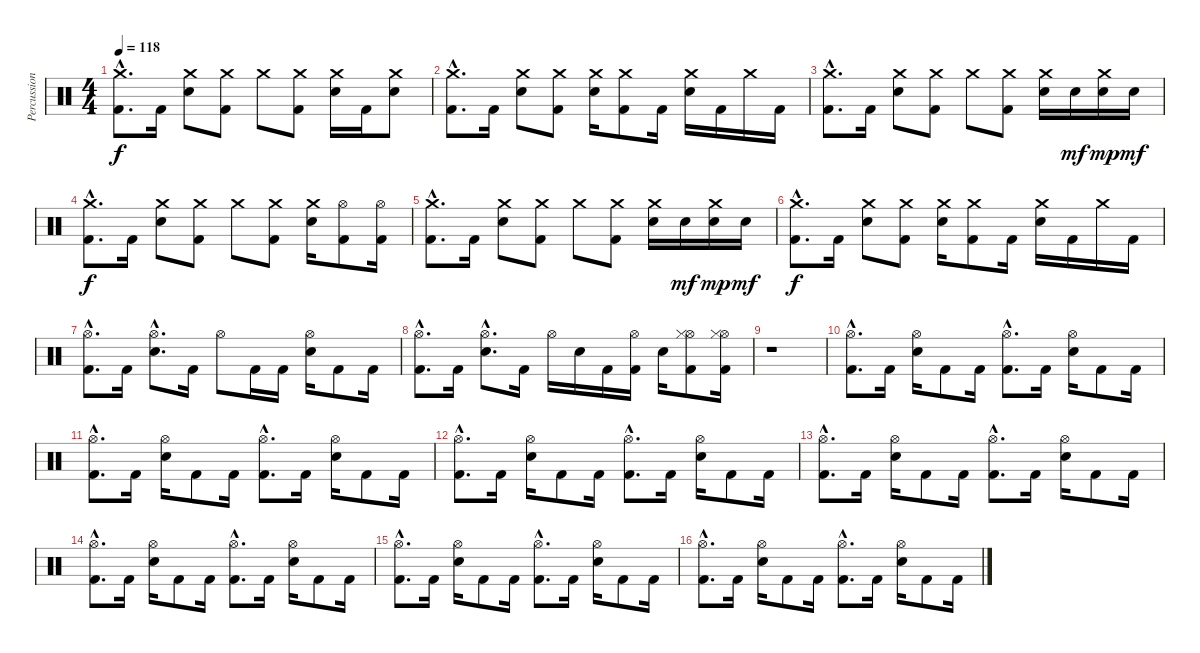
\track ("Percussions" "Percussion") {instrument percussion}
\staff {score}
\articulation defaults
\ts (4 4)
\tempo 118
\clef neutral
\ks c
("Crash medium (hit)"{hac} "Kick (hit) 2"{hac}).8{d dy f} "Kick (hit) 2".16 ("Crash medium (hit)" "Electric Snare (hit)").8 ("Crash medium (hit)" "Kick (hit) 2").8 "Crash medium (hit)".8 ("Crash medium (hit)" "Kick (hit) 2").8 ("Crash medium (hit)" "Electric Snare (hit)").16 "Kick (hit) 2".16 ("Crash medium (hit)" "Electric Snare (hit)").8 |
("Crash medium (hit)"{hac} "Kick (hit) 2"{hac}).8{d} "Kick (hit) 2".16 ("Crash medium (hit)" "Electric Snare (hit)").8 ("Crash medium (hit)" "Kick (hit) 2").8 ("Crash medium (hit)" "Electric Snare (hit)").16 ("Crash medium (hit)" "Kick (hit) 2").8 "Kick (hit) 2".16 ("Crash medium (hit)" "Electric Snare (hit)").16 "Kick (hit) 2".16 "Crash medium (hit)".16 "Kick (hit) 2".16 |
("Crash medium (hit)"{hac} "Kick (hit) 2"{hac}).8{d} "Kick (hit) 2".16 ("Crash medium (hit)" "Electric Snare (hit)").8 ("Crash medium (hit)" "Kick (hit) 2").8 "Crash medium (hit)".8 ("Crash medium (hit)" "Kick (hit) 2").8 ("Crash medium (hit)" "Electric Snare (hit)").16 "Electric Snare (hit)".16{dy mf} ("Crash medium (hit)" "Electric Snare (hit)").16{dy mp} "Electric Snare (hit)".16{dy mf} |
("Crash medium (hit)"{hac} "Kick (hit) 2"{hac}).8{d dy f} "Kick (hit) 2".16 ("Crash medium (hit)" "Electric Snare (hit)").8 ("Crash medium (hit)" "Kick (hit) 2").8 "Crash medium (hit)".8 ("Crash medium (hit)" "Kick (hit) 2").8 ("Crash medium (hit)" "Electric Snare (hit)").16 ("Hi-Hat (open)" "Kick (hit) 2").8 ("Hi-Hat (open)" "Kick (hit) 2").16 |
("Crash medium (hit)"{hac} "Kick (hit) 2"{hac}).8{d} "Kick (hit) 2".16 ("Crash medium (hit)" "Electric Snare (hit)").8 ("Crash medium (hit)" "Kick (hit) 2").8 "Crash medium (hit)".8 ("Crash medium (hit)" "Kick (hit) 2").8 ("Crash medium (hit)" "Electric Snare (hit)").16 "Electric Snare (hit)".16{dy mf} ("Crash medium (hit)" "Electric Snare (hit)").16{dy mp} "Electric Snare (hit)".16{dy mf} |
("Crash medium (hit)"{hac} "Kick (hit) 2"{hac}).8{d dy f} "Kick (hit) 2".16 ("Crash medium (hit)" "Electric Snare (hit)").8 ("Crash medium (hit)" "Kick (hit) 2").8 ("Crash medium (hit)" "Electric Snare (hit)").16 ("Crash medium (hit)" "Kick (hit) 2").8 "Kick (hit) 2".16 ("Crash medium (hit)" "Electric Snare (hit)").16 "Kick (hit) 2".16 "Crash medium (hit)".16 "Kick (hit) 2".16 |
("Hi-Hat (open)"{hac} "Kick (hit) 2"{hac}).8{d} "Kick (hit) 2".16 ("Hi-Hat (open)"{hac} "Electric Snare (hit)"{hac}).8{d} "Kick (hit) 2".16 "Hi-Hat (open)".8 "Kick (hit) 2".16 "Kick (hit) 2".16 ("Hi-Hat (open)" "Electric Snare (hit)").16 "Kick (hit) 2".8 "Kick (hit) 2".16 |
("Hi-Hat (open)"{hac} "Kick (hit) 2"{hac}).8{d} "Kick (hit) 2".16 ("Hi-Hat (open)"{hac} "Electric Snare (hit)"{hac}).8{d} "Kick (hit) 2".16 "Hi-Hat (open)".16 "Electric Snare (hit)".16 "Kick (hit) 2".16 ("Hi-Hat (open)" "Kick (hit) 2").16 "Electric Snare (hit)".16 ("Hi-Hat (open)" "Hi-Hat (closed)" "Kick (hit) 2").8 ("Hi-Hat (open)" "Hi-Hat (closed)" "Kick (hit) 2").16 |
r.1 |
("Hi-Hat (open)"{hac} "Kick (hit) 2"{hac}).8{d} "Kick (hit) 2".16 ("Hi-Hat (open)" "Electric Snare (hit)").16 "Kick (hit) 2".8 "Kick (hit) 2".16 ("Hi-Hat (open)"{hac} "Kick (hit) 2"{hac}).8{d} "Kick (hit) 2".16 ("Hi-Hat (open)" "Electric Snare (hit)").16 "Kick (hit) 2".8 "Kick (hit) 2".16 |
("Hi-Hat (open)"{hac} "Kick (hit) 2"{hac}).8{d} "Kick (hit) 2".16 ("Hi-Hat (open)" "Electric Snare (hit)").16 "Kick (hit) 2".8 "Kick (hit) 2".16 ("Hi-Hat (open)"{hac} "Kick (hit) 2"{hac}).8{d} "Kick (hit) 2".16 ("Hi-Hat (open)" "Electric Snare (hit)").16 "Kick (hit) 2".8 "Kick (hit) 2".16 |
("Hi-Hat (open)"{hac} "Kick (hit) 2"{hac}).8{d} "Kick (hit) 2".16 ("Hi-Hat (open)" "Electric Snare (hit)").16 "Kick (hit) 2".8 "Kick (hit) 2".16 ("Hi-Hat (open)"{hac} "Kick (hit) 2"{hac}).8{d} "Kick (hit) 2".16 ("Hi-Hat (open)" "Electric Snare (hit)").16 "Kick (hit) 2".8 "Kick (hit) 2".16 |
("Hi-Hat (open)"{hac} "Kick (hit) 2"{hac}).8{d} "Kick (hit) 2".16 ("Hi-Hat (open)" "Electric Snare (hit)").16 "Kick (hit) 2".8 "Kick (hit) 2".16 ("Hi-Hat (open)"{hac} "Kick (hit) 2"{hac}).8{d} "Kick (hit) 2".16 ("Hi-Hat (open)" "Electric Snare (hit)").16 "Kick (hit) 2".8 "Kick (hit) 2".16 |
("Hi-Hat (open)"{hac} "Kick (hit) 2"{hac}).8{d} "Kick (hit) 2".16 ("Hi-Hat (open)" "Electric Snare (hit)").16 "Kick (hit) 2".8 "Kick (hit) 2".16 ("Hi-Hat (open)"{hac} "Kick (hit) 2"{hac}).8{d} "Kick (hit) 2".16 ("Hi-Hat (open)" "Electric Snare (hit)").16 "Kick (hit) 2".8 "Kick (hit) 2".16 |
("Hi-Hat (open)"{hac} "Kick (hit) 2"{hac}).8{d} "Kick (hit) 2".16 ("Hi-Hat (open)" "Electric Snare (hit)").16 "Kick (hit) 2".8 "Kick (hit) 2".16 ("Hi-Hat (open)"{hac} "Kick (hit) 2"{hac}).8{d} "Kick (hit) 2".16 ("Hi-Hat (open)" "Electric Snare (hit)").16 "Kick (hit) 2".8 "Kick (hit) 2".16 |
("Hi-Hat (open)"{hac} "Kick (hit) 2"{hac}).8{d} "Kick (hit) 2".16 ("Hi-Hat (open)" "Electric Snare (hit)").16 "Kick (hit) 2".8 "Kick (hit) 2".16 ("Hi-Hat (open)"{hac} "Kick (hit) 2"{hac}).8{d} "Kick (hit) 2".16 ("Hi-Hat (open)" "Electric Snare (hit)").16 "Kick (hit) 2".8 "Kick (hit) 2".16
